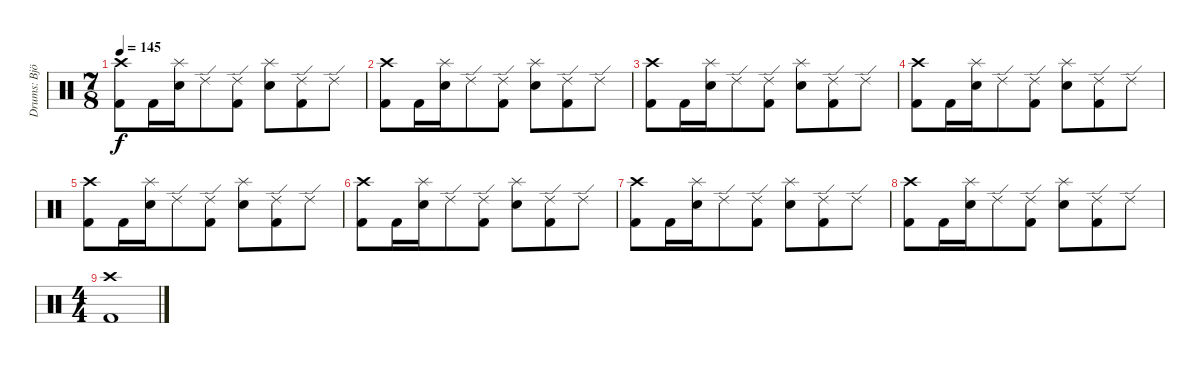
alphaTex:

\track ("Drums: Björn Fryklund" "Drums: Bjö") {instrument percussion}
\staff {score}
\articulation defaults
\ts (7 8)
\tempo 145
\clef neutral
\ks c
("Crash high (hit)" "Kick (hit) 2").8{dy f} "Kick (hit) 2".16 ("Splash (hit)" "Snare (hit) 2").16 "Ride (edge) 2".8 ("Ride (edge) 2" "Kick (hit) 2").8 ("Splash (hit)" "Snare (hit) 2").8 ("Ride (edge) 2" "Kick (hit) 2").8 "Ride (edge) 2".8 |
("Crash high (hit)" "Kick (hit) 2").8 "Kick (hit) 2".16 ("Splash (hit)" "Snare (hit) 2").16 "Ride (edge) 2".8 ("Ride (edge) 2" "Kick (hit) 2").8 ("Splash (hit)" "Snare (hit) 2").8 ("Ride (edge) 2" "Kick (hit) 2").8 "Ride (edge) 2".8 |
("Crash high (hit)" "Kick (hit) 2").8 "Kick (hit) 2".16 ("Splash (hit)" "Snare (hit) 2").16 "Ride (edge) 2".8 ("Ride (edge) 2" "Kick (hit) 2").8 ("Splash (hit)" "Snare (hit) 2").8 ("Ride (edge) 2" "Kick (hit) 2").8 "Ride (edge) 2".8 |
("Crash high (hit)" "Kick (hit) 2").8 "Kick (hit) 2".16 ("Splash (hit)" "Snare (hit) 2").16 "Ride (edge) 2".8 ("Ride (edge) 2" "Kick (hit) 2").8 ("Splash (hit)" "Snare (hit) 2").8 ("Ride (edge) 2" "Kick (hit) 2").8 "Ride (edge) 2".8 |
("Crash high (hit)" "Kick (hit) 2").8 "Kick (hit) 2".16 ("Splash (hit)" "Snare (hit) 2").16 "Ride (edge) 2".8 ("Ride (edge) 2" "Kick (hit) 2").8 ("Splash (hit)" "Snare (hit) 2").8 ("Ride (edge) 2" "Kick (hit) 2").8 "Ride (edge) 2".8 |
("Crash high (hit)" "Kick (hit) 2").8 "Kick (hit) 2".16 ("Splash (hit)" "Snare (hit) 2").16 "Ride (edge) 2".8 ("Ride (edge) 2" "Kick (hit) 2").8 ("Splash (hit)" "Snare (hit) 2").8 ("Ride (edge) 2" "Kick (hit) 2").8 "Ride (edge) 2".8 |
("Crash high (hit)" "Kick (hit) 2").8 "Kick (hit) 2".16 ("Splash (hit)" "Snare (hit) 2").16 "Ride (edge) 2".8 ("Ride (edge) 2" "Kick (hit) 2").8 ("Splash (hit)" "Snare (hit) 2").8 ("Ride (edge) 2" "Kick (hit) 2").8 "Ride (edge) 2".8 |
("Crash high (hit)" "Kick (hit) 2").8 "Kick (hit) 2".16 ("Splash (hit)" "Snare (hit) 2").16 "Ride (edge) 2".8 ("Ride (edge) 2" "Kick (hit) 2").8 ("Splash (hit)" "Snare (hit) 2").8 ("Ride (edge) 2" "Kick (hit) 2").8 "Ride (edge) 2".8 |
\ts (4 4)
("Crash high (hit)" "Kick (hit) 2").1
